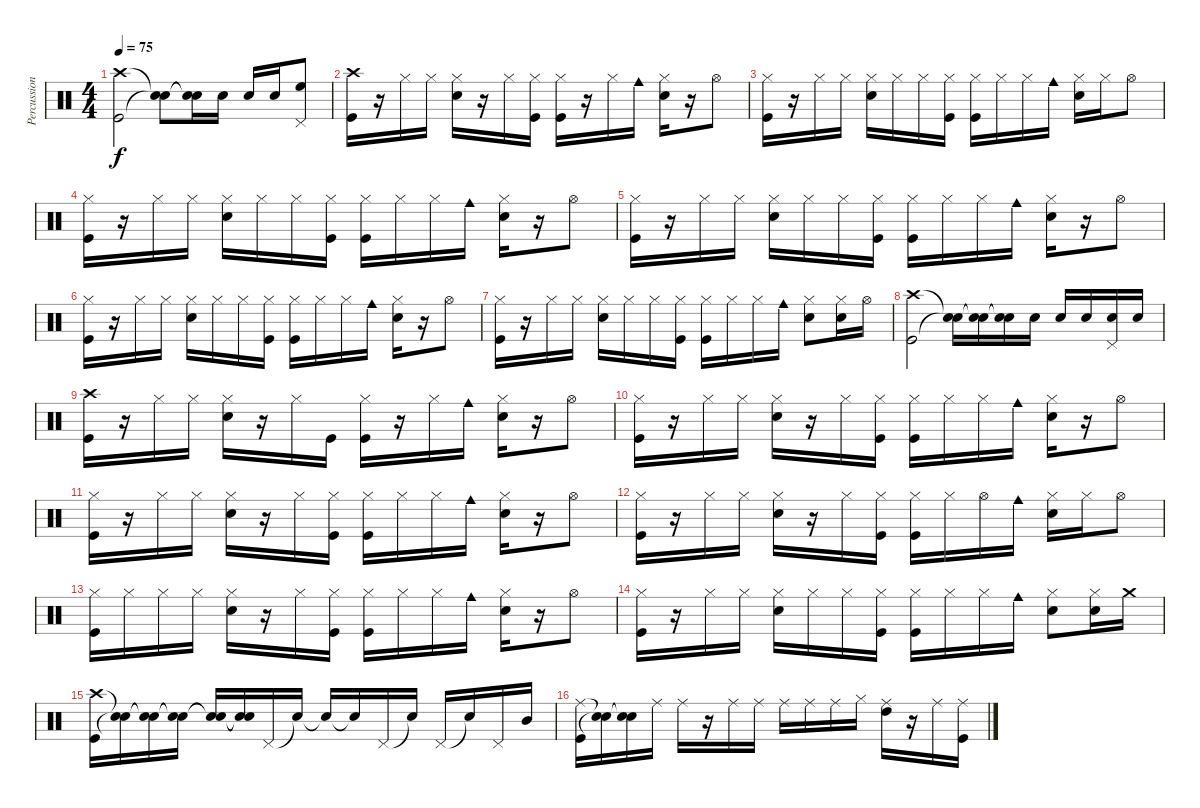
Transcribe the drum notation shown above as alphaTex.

\track ("Percussions" "Percussion") {instrument percussion}
\staff {score}
\articulation defaults
\ts (4 4)
\tempo 75
\clef neutral
\ks c
("Crash high (hit)" "Kick (hit)").2{dy f} ("Snare (hit)"{t} "Snare (hit)"{t}).8 ("Snare (hit)"{t} "Snare (hit)"{t}).16 "Electric Snare (hit)".16 "Electric Snare (hit)".16 "Electric Snare (hit)".16 ("High Floor Tom (hit)" "Pedal Hi-Hat (hit)").8 |
("Crash high (hit)" "Kick (hit)").16 r.16 "Hi-Hat (closed)".16 "Hi-Hat (closed)".16 ("Hi-Hat (closed)" "Electric Snare (hit)").16 r.16 "Hi-Hat (closed)".16 ("Hi-Hat (closed)" "Kick (hit)").16 ("Hi-Hat (closed)" "Kick (hit)").16 r.16 "Hi-Hat (closed)".16 "Cowbell medium (hit)".16 ("Hi-Hat (closed)" "Electric Snare (hit)").16 r.16 "Hi-Hat (open)".8 |
("Hi-Hat (closed)" "Kick (hit)").16 r.16 "Hi-Hat (closed)".16 "Hi-Hat (closed)".16 ("Hi-Hat (closed)" "Electric Snare (hit)").16 "Hi-Hat (closed)".16 "Hi-Hat (closed)".16 ("Hi-Hat (closed)" "Kick (hit)").16 ("Hi-Hat (closed)" "Kick (hit)").16 "Hi-Hat (closed)".16 "Hi-Hat (closed)".16 "Cowbell medium (hit)".16 ("Hi-Hat (closed)" "Electric Snare (hit)").16 "Hi-Hat (closed)".16 "Hi-Hat (open)".8 |
("Hi-Hat (closed)" "Kick (hit)").16 r.16 "Hi-Hat (closed)".16 "Hi-Hat (closed)".16 ("Hi-Hat (closed)" "Electric Snare (hit)").16 "Hi-Hat (closed)".16 "Hi-Hat (closed)".16 ("Hi-Hat (closed)" "Kick (hit)").16 ("Hi-Hat (closed)" "Kick (hit)").16 "Hi-Hat (closed)".16 "Hi-Hat (closed)".16 "Cowbell medium (hit)".16 ("Hi-Hat (closed)" "Electric Snare (hit)").16 r.16 "Hi-Hat (open)".8 |
("Hi-Hat (closed)" "Kick (hit)").16 r.16 "Hi-Hat (closed)".16 "Hi-Hat (closed)".16 ("Hi-Hat (closed)" "Electric Snare (hit)").16 "Hi-Hat (closed)".16 "Hi-Hat (closed)".16 ("Hi-Hat (closed)" "Kick (hit)").16 ("Hi-Hat (closed)" "Kick (hit)").16 "Hi-Hat (closed)".16 "Hi-Hat (closed)".16 "Cowbell medium (hit)".16 ("Hi-Hat (closed)" "Electric Snare (hit)").16 r.16 "Hi-Hat (open)".8 |
("Hi-Hat (closed)" "Kick (hit)").16 r.16 "Hi-Hat (closed)".16 "Hi-Hat (closed)".16 ("Hi-Hat (closed)" "Electric Snare (hit)").16 "Hi-Hat (closed)".16 "Hi-Hat (closed)".16 ("Hi-Hat (closed)" "Kick (hit)").16 ("Hi-Hat (closed)" "Kick (hit)").16 "Hi-Hat (closed)".16 "Hi-Hat (closed)".16 "Cowbell medium (hit)".16 ("Hi-Hat (closed)" "Electric Snare (hit)").16 r.16 "Hi-Hat (open)".8 |
("Hi-Hat (closed)" "Kick (hit)").16 r.16 "Hi-Hat (closed)".16 "Hi-Hat (closed)".16 ("Hi-Hat (closed)" "Electric Snare (hit)").16 "Hi-Hat (closed)".16 "Hi-Hat (closed)".16 ("Hi-Hat (closed)" "Kick (hit)").16 ("Hi-Hat (closed)" "Kick (hit)").16 "Hi-Hat (closed)".16 "Hi-Hat (closed)".16 "Cowbell medium (hit)".16 ("Hi-Hat (closed)" "Electric Snare (hit)").8 ("Hi-Hat (closed)" "Electric Snare (hit)").16 "Hi-Hat (open)".16 |
("Crash high (hit)" "Kick (hit)").2 ("Snare (hit)"{t} "Snare (hit)"{t}).16 ("Snare (hit)"{t} "Snare (hit)"{t}).16 ("Snare (hit)"{t} "Snare (hit)"{t}).16 "Electric Snare (hit)".16 "Electric Snare (hit)".16 "Electric Snare (hit)".16 ("Electric Snare (hit)" "Pedal Hi-Hat (hit)").16 "Electric Snare (hit)".16 |
("Crash high (hit)" "Kick (hit)").16 r.16 "Hi-Hat (closed)".16 "Hi-Hat (closed)".16 ("Hi-Hat (closed)" "Electric Snare (hit)").16 r.16 "Hi-Hat (closed)".16 "Kick (hit)".16 ("Hi-Hat (closed)" "Kick (hit)").16 r.16 "Hi-Hat (closed)".16 "Cowbell medium (hit)".16 ("Hi-Hat (closed)" "Electric Snare (hit)").16 r.16 "Hi-Hat (open)".8 |
("Hi-Hat (closed)" "Kick (hit)").16 r.16 "Hi-Hat (closed)".16 "Hi-Hat (closed)".16 ("Hi-Hat (closed)" "Electric Snare (hit)").16 r.16 "Hi-Hat (closed)".16 ("Hi-Hat (closed)" "Kick (hit)").16 ("Hi-Hat (closed)" "Kick (hit)").16 "Hi-Hat (closed)".16 "Hi-Hat (closed)".16 "Cowbell medium (hit)".16 ("Hi-Hat (closed)" "Electric Snare (hit)").16 r.16 "Hi-Hat (open)".8 |
("Hi-Hat (closed)" "Kick (hit)").16 r.16 "Hi-Hat (closed)".16 "Hi-Hat (closed)".16 ("Hi-Hat (closed)" "Electric Snare (hit)").16 r.16 "Hi-Hat (closed)".16 ("Hi-Hat (closed)" "Kick (hit)").16 ("Hi-Hat (closed)" "Kick (hit)").16 "Hi-Hat (closed)".16 "Hi-Hat (closed)".16 "Cowbell medium (hit)".16 ("Hi-Hat (closed)" "Electric Snare (hit)").16 r.16 "Hi-Hat (open)".8 |
("Hi-Hat (closed)" "Kick (hit)").16 r.16 "Hi-Hat (closed)".16 "Hi-Hat (closed)".16 ("Hi-Hat (closed)" "Electric Snare (hit)").16 r.16 "Hi-Hat (closed)".16 ("Hi-Hat (closed)" "Kick (hit)").16 ("Hi-Hat (closed)" "Kick (hit)").16 "Hi-Hat (closed)".16 "Hi-Hat (open)".16 "Cowbell medium (hit)".16 ("Hi-Hat (closed)" "Electric Snare (hit)").16 "Hi-Hat (closed)".16 "Hi-Hat (open)".8 |
("Hi-Hat (closed)" "Kick (hit)").16 "Hi-Hat (closed)".16 "Hi-Hat (closed)".16 "Hi-Hat (closed)".16 ("Hi-Hat (closed)" "Electric Snare (hit)").16 r.16 "Hi-Hat (closed)".16 ("Hi-Hat (closed)" "Kick (hit)").16 ("Hi-Hat (closed)" "Kick (hit)").16 "Hi-Hat (closed)".16 "Hi-Hat (closed)".16 "Cowbell medium (hit)".16 ("Hi-Hat (closed)" "Electric Snare (hit)").16 r.16 "Hi-Hat (open)".8 |
("Hi-Hat (closed)" "Kick (hit)").16 r.16 "Hi-Hat (closed)".16 "Hi-Hat (closed)".16 ("Hi-Hat (closed)" "Electric Snare (hit)").16 "Hi-Hat (closed)".16 "Hi-Hat (closed)".16 ("Hi-Hat (closed)" "Kick (hit)").16 ("Hi-Hat (closed)" "Kick (hit)").16 "Hi-Hat (closed)".16 "Hi-Hat (closed)".16 "Cowbell medium (hit)".16 ("Hi-Hat (closed)" "Electric Snare (hit)").8 ("Hi-Hat (closed)" "Electric Snare (hit)").16 "Crash medium (hit)".16 |
("Crash high (hit)" "Kick (hit)").16 ("Snare (hit)"{t} "Snare (hit)"{t}).16 ("Snare (hit)"{t} "Snare (hit)"{t}).16 ("Snare (hit)"{t} "Snare (hit)"{t}).16 ("Snare (hit)"{t} "Snare (hit)"{t}).16 ("Snare (hit)"{t} "Snare (hit)"{t}).16 "Pedal Hi-Hat (hit)".16 "Snare (hit)"{t}.16 "Snare (hit)"{t}.16 "Snare (hit)"{t}.16 "Pedal Hi-Hat (hit)".16 "Snare (hit)"{t}.16 "Pedal Hi-Hat (hit)".16 "Snare (hit)"{t}.16 "Pedal Hi-Hat (hit)".16 "Mid Tom (hit)".16 |
("Ride (middle)" "Kick (hit)").16 ("Snare (hit)"{t} "Snare (hit)"{t}).16 ("Snare (hit)"{t} "Snare (hit)"{t}).16 "Ride (middle)".16 "Ride (middle)".16 r.16 "Ride (middle)".16 "Ride (middle)".16 "Ride (middle)".16 "Ride (middle)".16 "Ride (middle)".16 "Hi-Hat (closed)".16 ("Ride (middle)" "High Tom (hit)").16 r.16 "Ride (middle)".16 ("Ride (middle)" "Kick (hit)").16
